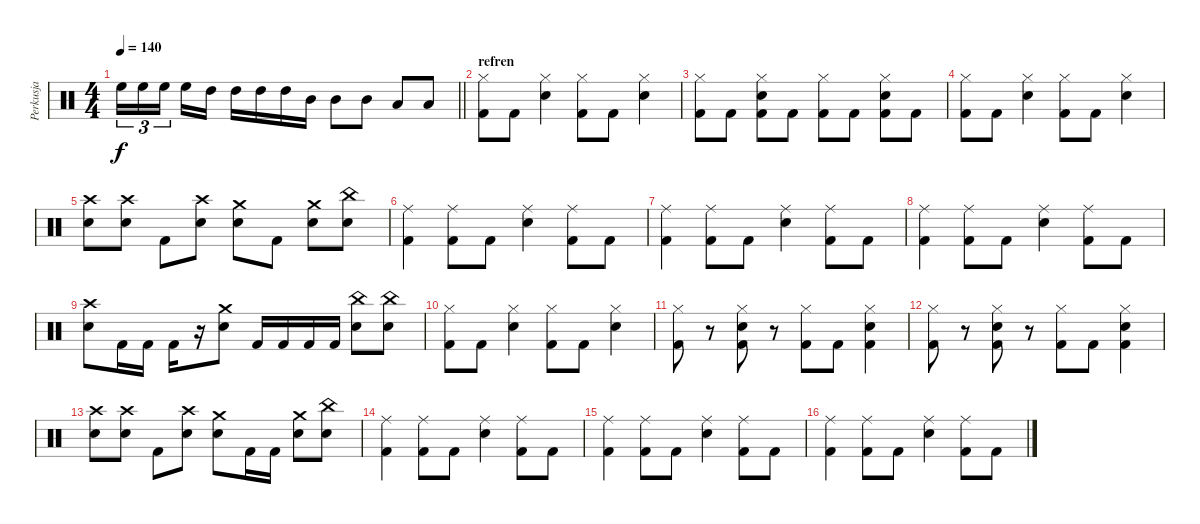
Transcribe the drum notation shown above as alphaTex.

\track ("Perkusja" "Perkusja") {instrument percussion}
\staff {score}
\articulation defaults
\ts (4 4)
\tempo 140
\clef neutral
\barLineRight lightlight
\ks c "High Floor Tom (hit)".16{tu (3 2) dy f} "High Floor Tom (hit)".16{tu (3 2)} "High Floor Tom (hit)".16{tu (3 2) beam splitsecondary} "High Floor Tom (hit)".16 "High Tom (hit)".16 "High Tom (hit)".16 "High Tom (hit)".16 "High Tom (hit)".16 "Mid Tom (hit)".16 "Mid Tom (hit)".8 "Mid Tom (hit)".8 "Low Tom (hit)".8 "Low Tom (hit)".8
|
\section ("" "refren")
("Hi-Hat (closed)" "Kick (hit) 2").8 "Kick (hit) 2".8 ("Hi-Hat (closed)" "Snare (hit) 2").4 ("Hi-Hat (closed)" "Kick (hit) 2").8 "Kick (hit) 2".8 ("Hi-Hat (closed)" "Snare (hit) 2").4 |
("Hi-Hat (closed)" "Kick (hit) 2").8 "Kick (hit) 2".8 ("Hi-Hat (closed)" "Kick (hit) 2" "Snare (hit) 2").8 "Kick (hit) 2".8 ("Hi-Hat (closed)" "Kick (hit) 2").8 "Kick (hit) 2".8 ("Hi-Hat (closed)" "Kick (hit) 2" "Snare (hit) 2").8 "Kick (hit) 2".8 |
("Hi-Hat (closed)" "Kick (hit) 2").8 "Kick (hit) 2".8 ("Hi-Hat (closed)" "Snare (hit) 2").4 ("Hi-Hat (closed)" "Kick (hit) 2").8 "Kick (hit) 2".8 ("Hi-Hat (closed)" "Snare (hit) 2").4 |
("Snare (hit) 2" "Crash high (hit)").8 ("Snare (hit) 2" "Crash high (hit)").8 "Kick (hit) 2".8 ("Snare (hit) 2" "Crash high (hit)").8 ("Snare (hit) 2" "Crash medium (hit)").8 "Kick (hit) 2".8 ("Snare (hit) 2" "Crash medium (hit)").8 ("Snare (hit) 2" "China (hit)").8 |
("Ride (middle)" "Kick (hit) 2").4 ("Ride (middle)" "Kick (hit) 2").8 "Kick (hit) 2".8 ("Ride (middle)" "Snare (hit) 2").4 ("Ride (middle)" "Kick (hit) 2").8 "Kick (hit) 2".8 |
("Ride (middle)" "Kick (hit) 2").4 ("Ride (middle)" "Kick (hit) 2").8 "Kick (hit) 2".8 ("Ride (middle)" "Snare (hit) 2").4 ("Ride (middle)" "Kick (hit) 2").8 "Kick (hit) 2".8 |
("Ride (middle)" "Kick (hit) 2").4 ("Ride (middle)" "Kick (hit) 2").8 "Kick (hit) 2".8 ("Ride (middle)" "Snare (hit) 2").4 ("Ride (middle)" "Kick (hit) 2").8 "Kick (hit) 2".8 |
("Crash high (hit)" "Snare (hit) 2").8 "Kick (hit) 2".16 "Kick (hit) 2".16 "Kick (hit) 2".16 r.16 ("Crash medium (hit)" "Snare (hit) 2").8 "Kick (hit) 2".16 "Kick (hit) 2".16 "Kick (hit) 2".16 "Kick (hit) 2".16 ("China (hit)" "Snare (hit) 2").8 ("China (hit)" "Snare (hit) 2").8 |
("Hi-Hat (closed)" "Kick (hit) 2").8 "Kick (hit) 2".8 ("Hi-Hat (closed)" "Snare (hit) 2").4 ("Hi-Hat (closed)" "Kick (hit) 2").8 "Kick (hit) 2".8 ("Hi-Hat (closed)" "Snare (hit) 2").4 |
("Hi-Hat (closed)" "Kick (hit) 2").8 r.8 ("Hi-Hat (closed)" "Kick (hit) 2" "Snare (hit) 2").8 r.8 ("Hi-Hat (closed)" "Kick (hit) 2").8 "Kick (hit) 2".8 ("Hi-Hat (closed)" "Kick (hit) 2" "Snare (hit) 2").4 |
("Hi-Hat (closed)" "Kick (hit) 2").8 r.8 ("Hi-Hat (closed)" "Kick (hit) 2" "Snare (hit) 2").8 r.8 ("Hi-Hat (closed)" "Kick (hit) 2").8 "Kick (hit) 2".8 ("Hi-Hat (closed)" "Kick (hit) 2" "Snare (hit) 2").4 |
("Snare (hit) 2" "Crash high (hit)").8 ("Snare (hit) 2" "Crash high (hit)").8 "Kick (hit) 2".8 ("Snare (hit) 2" "Crash high (hit)").8 ("Snare (hit) 2" "Crash medium (hit)").8 "Kick (hit) 2".16 "Kick (hit) 2".16 ("Snare (hit) 2" "Crash medium (hit)").8 ("Snare (hit) 2" "China (hit)").8 |
("Ride (middle)" "Kick (hit) 2").4 ("Ride (middle)" "Kick (hit) 2").8 "Kick (hit) 2".8 ("Ride (middle)" "Snare (hit) 2").4 ("Ride (middle)" "Kick (hit) 2").8 "Kick (hit) 2".8 |
("Ride (middle)" "Kick (hit) 2").4 ("Ride (middle)" "Kick (hit) 2").8 "Kick (hit) 2".8 ("Ride (middle)" "Snare (hit) 2").4 ("Ride (middle)" "Kick (hit) 2").8 "Kick (hit) 2".8 |
("Ride (middle)" "Kick (hit) 2").4 ("Ride (middle)" "Kick (hit) 2").8 "Kick (hit) 2".8 ("Ride (middle)" "Snare (hit) 2").4 ("Ride (middle)" "Kick (hit) 2").8 "Kick (hit) 2".8
